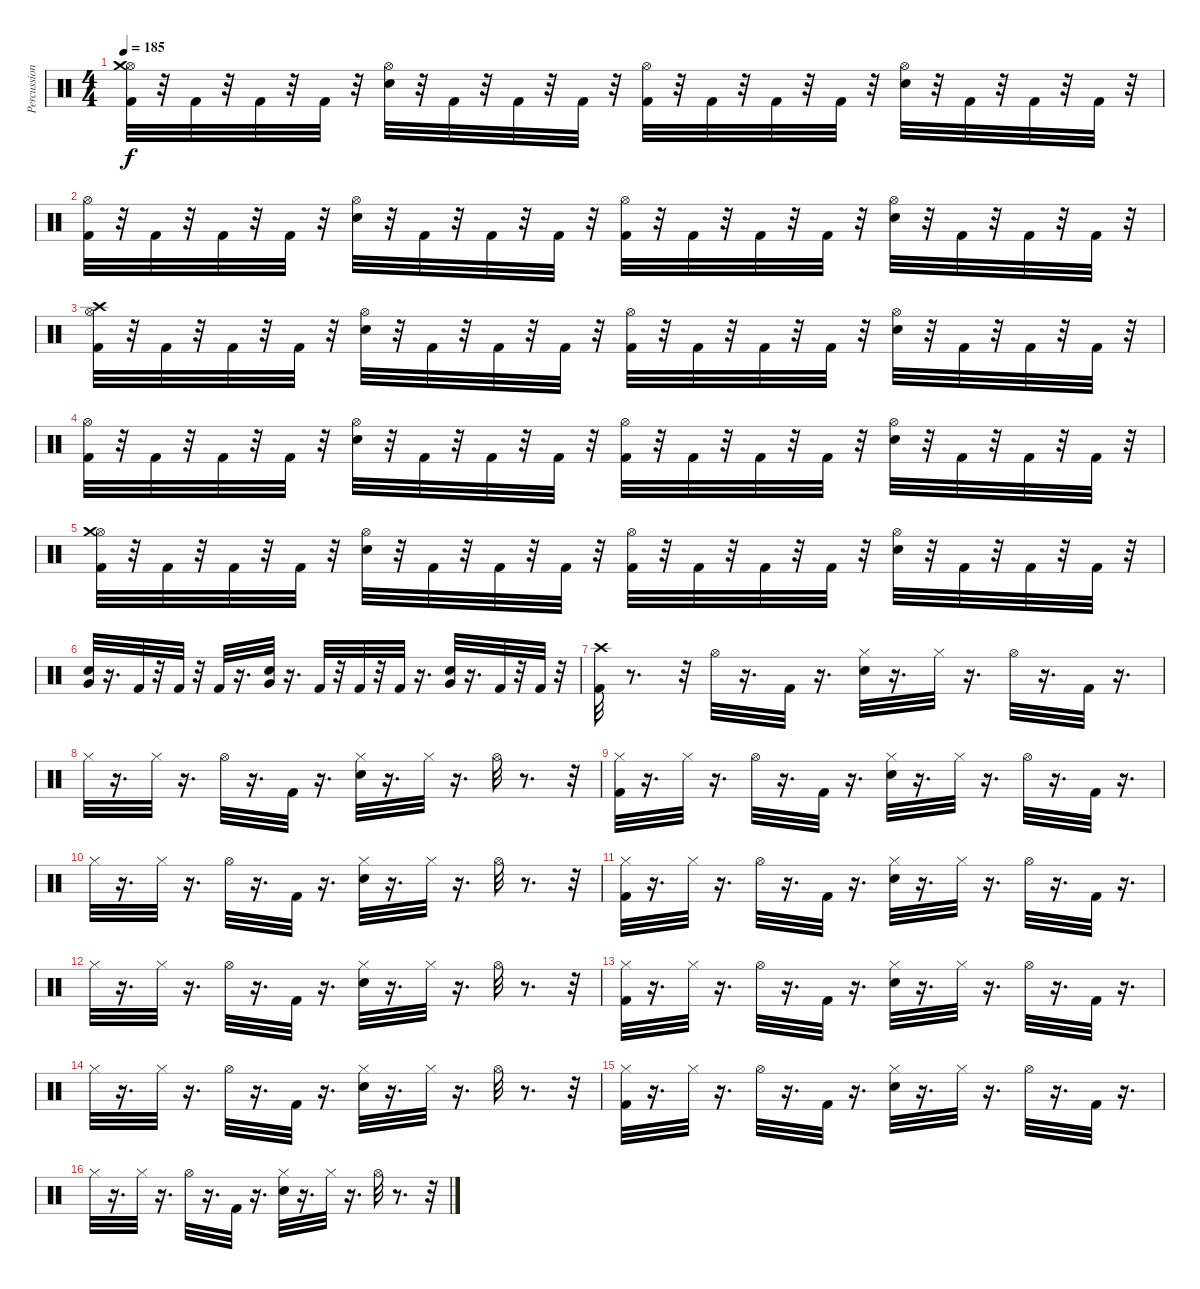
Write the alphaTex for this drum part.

\track ("Percussion" "Percussion") {instrument percussion}
\staff {score}
\articulation defaults
\ts (4 4)
\tempo 185
\clef neutral
\ks c
("Kick (hit) 2" "Hi-Hat (open)" "Crash medium (hit)").32{dy f} r.32 "Kick (hit) 2".32 r.32 "Kick (hit) 2".32 r.32 "Kick (hit) 2".32 r.32 ("Snare (hit) 2" "Hi-Hat (open)").32 r.32 "Kick (hit) 2".32 r.32 "Kick (hit) 2".32 r.32 "Kick (hit) 2".32 r.32 ("Kick (hit) 2" "Hi-Hat (open)").32 r.32 "Kick (hit) 2".32 r.32 "Kick (hit) 2".32 r.32 "Kick (hit) 2".32 r.32 ("Snare (hit) 2" "Hi-Hat (open)").32 r.32 "Kick (hit) 2".32 r.32 "Kick (hit) 2".32 r.32 "Kick (hit) 2".32 r.32 |
("Kick (hit) 2" "Hi-Hat (open)").32 r.32 "Kick (hit) 2".32 r.32 "Kick (hit) 2".32 r.32 "Kick (hit) 2".32 r.32 ("Snare (hit) 2" "Hi-Hat (open)").32 r.32 "Kick (hit) 2".32 r.32 "Kick (hit) 2".32 r.32 "Kick (hit) 2".32 r.32 ("Kick (hit) 2" "Hi-Hat (open)").32 r.32 "Kick (hit) 2".32 r.32 "Kick (hit) 2".32 r.32 "Kick (hit) 2".32 r.32 ("Snare (hit) 2" "Hi-Hat (open)").32 r.32 "Kick (hit) 2".32 r.32 "Kick (hit) 2".32 r.32 "Kick (hit) 2".32 r.32 |
("Kick (hit) 2" "Hi-Hat (open)" "Crash high (hit)").32 r.32 "Kick (hit) 2".32 r.32 "Kick (hit) 2".32 r.32 "Kick (hit) 2".32 r.32 ("Snare (hit) 2" "Hi-Hat (open)").32 r.32 "Kick (hit) 2".32 r.32 "Kick (hit) 2".32 r.32 "Kick (hit) 2".32 r.32 ("Kick (hit) 2" "Hi-Hat (open)").32 r.32 "Kick (hit) 2".32 r.32 "Kick (hit) 2".32 r.32 "Kick (hit) 2".32 r.32 ("Snare (hit) 2" "Hi-Hat (open)").32 r.32 "Kick (hit) 2".32 r.32 "Kick (hit) 2".32 r.32 "Kick (hit) 2".32 r.32 |
("Kick (hit) 2" "Hi-Hat (open)").32 r.32 "Kick (hit) 2".32 r.32 "Kick (hit) 2".32 r.32 "Kick (hit) 2".32 r.32 ("Snare (hit) 2" "Hi-Hat (open)").32 r.32 "Kick (hit) 2".32 r.32 "Kick (hit) 2".32 r.32 "Kick (hit) 2".32 r.32 ("Kick (hit) 2" "Hi-Hat (open)").32 r.32 "Kick (hit) 2".32 r.32 "Kick (hit) 2".32 r.32 "Kick (hit) 2".32 r.32 ("Snare (hit) 2" "Hi-Hat (open)").32 r.32 "Kick (hit) 2".32 r.32 "Kick (hit) 2".32 r.32 "Kick (hit) 2".32 r.32 |
("Kick (hit) 2" "Hi-Hat (open)" "Crash medium (hit)").32 r.32 "Kick (hit) 2".32 r.32 "Kick (hit) 2".32 r.32 "Kick (hit) 2".32 r.32 ("Snare (hit) 2" "Hi-Hat (open)").32 r.32 "Kick (hit) 2".32 r.32 "Kick (hit) 2".32 r.32 "Kick (hit) 2".32 r.32 ("Kick (hit) 2" "Hi-Hat (open)").32 r.32 "Kick (hit) 2".32 r.32 "Kick (hit) 2".32 r.32 "Kick (hit) 2".32 r.32 ("Snare (hit) 2" "Hi-Hat (open)").32 r.32 "Kick (hit) 2".32 r.32 "Kick (hit) 2".32 r.32 "Kick (hit) 2".32 r.32 |
("Snare (hit) 2" "Very Low Tom (hit)").32 r.16{d} "Kick (hit) 2".32 r.32 "Kick (hit) 2".32 r.32 "Kick (hit) 2".32 r.16{d} ("Snare (hit) 2" "Very Low Tom (hit)").32 r.16{d} "Kick (hit) 2".32 r.32 "Kick (hit) 2".32 r.32 "Kick (hit) 2".32 r.16{d} ("Snare (hit) 2" "Very Low Tom (hit)").32 r.16{d} "Kick (hit) 2".32 r.32 "Kick (hit) 2".32 r.32 |
("Kick (hit) 2" "Crash high (hit)").32 r.8{d} r.32 "Hi-Hat (open)".32 r.16{d} "Kick (hit) 2".32 r.16{d} ("Snare (hit) 2" "Hi-Hat (closed)").32 r.16{d} "Hi-Hat (closed)".32 r.16{d} "Hi-Hat (open)".32 r.16{d} "Kick (hit) 2".32 r.16{d} |
"Hi-Hat (closed)".32 r.16{d} "Hi-Hat (closed)".32 r.16{d} "Hi-Hat (open)".32 r.16{d} "Kick (hit) 2".32 r.16{d} ("Snare (hit) 2" "Hi-Hat (closed)").32 r.16{d} "Hi-Hat (closed)".32 r.16{d} "Hi-Hat (open)".32 r.8{d} r.32 |
("Kick (hit) 2" "Hi-Hat (closed)").32 r.16{d} "Hi-Hat (closed)".32 r.16{d} "Hi-Hat (open)".32 r.16{d} "Kick (hit) 2".32 r.16{d} ("Snare (hit) 2" "Hi-Hat (closed)").32 r.16{d} "Hi-Hat (closed)".32 r.16{d} "Hi-Hat (open)".32 r.16{d} "Kick (hit) 2".32 r.16{d} |
"Hi-Hat (closed)".32 r.16{d} "Hi-Hat (closed)".32 r.16{d} "Hi-Hat (open)".32 r.16{d} "Kick (hit) 2".32 r.16{d} ("Snare (hit) 2" "Hi-Hat (closed)").32 r.16{d} "Hi-Hat (closed)".32 r.16{d} "Hi-Hat (open)".32 r.8{d} r.32 |
("Kick (hit) 2" "Hi-Hat (closed)").32 r.16{d} "Hi-Hat (closed)".32 r.16{d} "Hi-Hat (open)".32 r.16{d} "Kick (hit) 2".32 r.16{d} ("Snare (hit) 2" "Hi-Hat (closed)").32 r.16{d} "Hi-Hat (closed)".32 r.16{d} "Hi-Hat (open)".32 r.16{d} "Kick (hit) 2".32 r.16{d} |
"Hi-Hat (closed)".32 r.16{d} "Hi-Hat (closed)".32 r.16{d} "Hi-Hat (open)".32 r.16{d} "Kick (hit) 2".32 r.16{d} ("Snare (hit) 2" "Hi-Hat (closed)").32 r.16{d} "Hi-Hat (closed)".32 r.16{d} "Hi-Hat (open)".32 r.8{d} r.32 |
("Kick (hit) 2" "Hi-Hat (closed)").32 r.16{d} "Hi-Hat (closed)".32 r.16{d} "Hi-Hat (open)".32 r.16{d} "Kick (hit) 2".32 r.16{d} ("Snare (hit) 2" "Hi-Hat (closed)").32 r.16{d} "Hi-Hat (closed)".32 r.16{d} "Hi-Hat (open)".32 r.16{d} "Kick (hit) 2".32 r.16{d} |
"Hi-Hat (closed)".32 r.16{d} "Hi-Hat (closed)".32 r.16{d} "Hi-Hat (open)".32 r.16{d} "Kick (hit) 2".32 r.16{d} ("Snare (hit) 2" "Hi-Hat (closed)").32 r.16{d} "Hi-Hat (closed)".32 r.16{d} "Hi-Hat (open)".32 r.8{d} r.32 |
("Kick (hit) 2" "Hi-Hat (closed)").32 r.16{d} "Hi-Hat (closed)".32 r.16{d} "Hi-Hat (open)".32 r.16{d} "Kick (hit) 2".32 r.16{d} ("Snare (hit) 2" "Hi-Hat (closed)").32 r.16{d} "Hi-Hat (closed)".32 r.16{d} "Hi-Hat (open)".32 r.16{d} "Kick (hit) 2".32 r.16{d} |
"Hi-Hat (closed)".32 r.16{d} "Hi-Hat (closed)".32 r.16{d} "Hi-Hat (open)".32 r.16{d} "Kick (hit) 2".32 r.16{d} ("Snare (hit) 2" "Hi-Hat (closed)").32 r.16{d} "Hi-Hat (closed)".32 r.16{d} "Hi-Hat (open)".32 r.8{d} r.32
